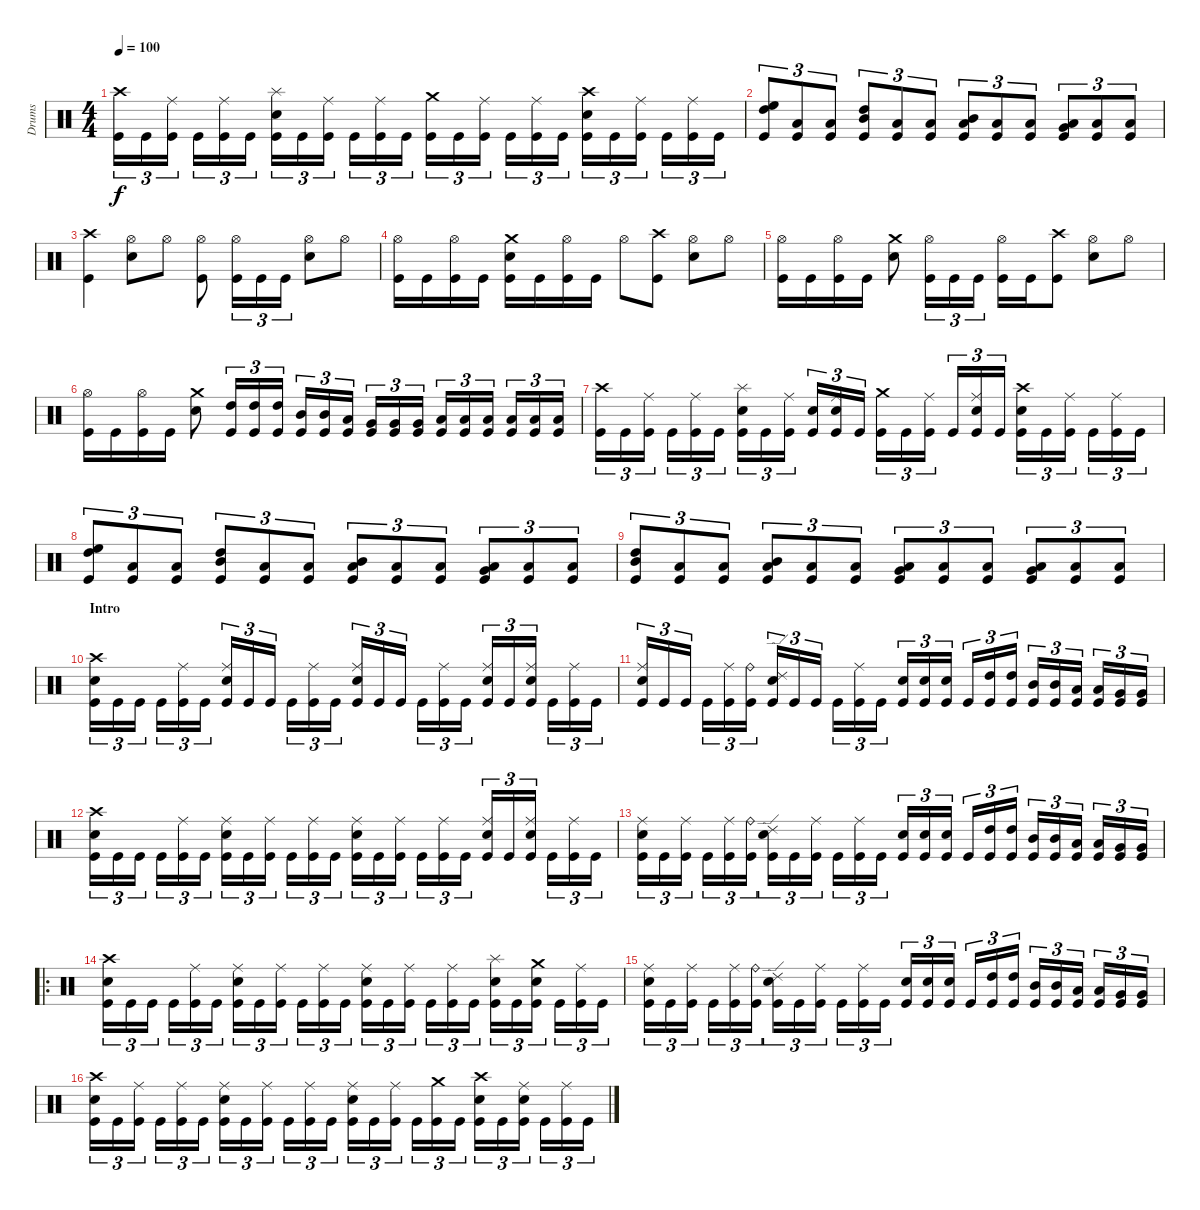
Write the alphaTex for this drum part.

\track ("Drums" "Drums") {instrument percussion}
\staff {score}
\articulation defaults
\ts (4 4)
\tempo 100
\clef neutral
\ks c
("Crash high (hit)" "Kick (hit)").16{tu (3 2) dy f} "Kick (hit)".16{tu (3 2)} ("Ride (middle)" "Kick (hit)").16{tu (3 2)} "Kick (hit)".16{tu (3 2)} ("Ride (middle)" "Kick (hit)").16{tu (3 2)} "Kick (hit)".16{tu (3 2)} ("Splash (hit)" "Electric Snare (hit)" "Kick (hit)").16{tu (3 2)} "Kick (hit)".16{tu (3 2)} ("Ride (middle)" "Kick (hit)").16{tu (3 2)} "Kick (hit)".16{tu (3 2)} ("Ride (middle)" "Kick (hit)").16{tu (3 2)} "Kick (hit)".16{tu (3 2)} ("Crash medium (hit)" "Kick (hit)").16{tu (3 2)} "Kick (hit)".16{tu (3 2)} ("Ride (middle)" "Kick (hit)").16{tu (3 2)} "Kick (hit)".16{tu (3 2)} ("Ride (middle)" "Kick (hit)").16{tu (3 2)} "Kick (hit)".16{tu (3 2)} ("Crash high (hit)" "Electric Snare (hit)" "Kick (hit)").16{tu (3 2)} "Kick (hit)".16{tu (3 2)} ("Ride (middle)" "Kick (hit)").16{tu (3 2)} "Kick (hit)".16{tu (3 2)} ("Ride (middle)" "Kick (hit)").16{tu (3 2)} "Kick (hit)".16{tu (3 2)} |
("High Floor Tom (hit)" "High Tom (hit)" "Kick (hit)").8{tu (3 2)} ("Low Floor Tom (hit)" "Kick (hit)").8{tu (3 2)} ("Low Floor Tom (hit)" "Kick (hit)").8{tu (3 2)} ("Mid Tom (hit)" "High Tom (hit)" "Kick (hit)").8{tu (3 2)} ("Low Floor Tom (hit)" "Kick (hit)").8{tu (3 2)} ("Low Floor Tom (hit)" "Kick (hit)").8{tu (3 2)} ("Mid Tom (hit)" "Low Tom (hit)" "Kick (hit)").8{tu (3 2)} ("Low Floor Tom (hit)" "Kick (hit)").8{tu (3 2)} ("Low Floor Tom (hit)" "Kick (hit)").8{tu (3 2)} ("Very Low Tom (hit)" "Low Tom (hit)" "Kick (hit)").8{tu (3 2)} ("Low Floor Tom (hit)" "Kick (hit)").8{tu (3 2)} ("Low Floor Tom (hit)" "Kick (hit)").8{tu (3 2)} |
("Crash high (hit)" "Kick (hit)").4 ("Hi-Hat (open)" "Electric Snare (hit)").8 "Hi-Hat (open)".8 ("Hi-Hat (open)" "Kick (hit)").8 ("Hi-Hat (open)" "Kick (hit)").16{tu (3 2)} "Kick (hit)".16{tu (3 2)} "Kick (hit)".16{tu (3 2)} ("Hi-Hat (open)" "Electric Snare (hit)").8 "Hi-Hat (open)".8 |
("Hi-Hat (open)" "Kick (hit)").16 "Kick (hit)".16 ("Hi-Hat (open)" "Kick (hit)").16 "Kick (hit)".16 ("Crash medium (hit)" "Electric Snare (hit)" "Kick (hit)").16 "Kick (hit)".16 ("Hi-Hat (open)" "Kick (hit)").16 "Kick (hit)".16 "Hi-Hat (open)".8 ("Crash high (hit)" "Kick (hit)").8 ("Hi-Hat (open)" "Electric Snare (hit)").8 "Hi-Hat (open)".8 |
("Hi-Hat (open)" "Kick (hit)").16 "Kick (hit)".16 ("Hi-Hat (open)" "Kick (hit)").16 "Kick (hit)".16 ("Crash medium (hit)" "Electric Snare (hit)").8 ("Hi-Hat (open)" "Kick (hit)").16{tu (3 2)} "Kick (hit)".16{tu (3 2)} "Kick (hit)".16{tu (3 2)} ("Hi-Hat (open)" "Kick (hit)").16 "Kick (hit)".16 ("Crash high (hit)" "Kick (hit)").8 ("Hi-Hat (open)" "Electric Snare (hit)").8 "Hi-Hat (open)".8 |
("Hi-Hat (open)" "Kick (hit)").16 "Kick (hit)".16 ("Hi-Hat (open)" "Kick (hit)").16 "Kick (hit)".16 ("Crash medium (hit)" "Electric Snare (hit)").8 ("High Tom (hit)" "Kick (hit)").16{tu (3 2)} ("High Tom (hit)" "Kick (hit)").16{tu (3 2)} ("High Tom (hit)" "Kick (hit)").16{tu (3 2)} ("Mid Tom (hit)" "Kick (hit)").16{tu (3 2)} ("Mid Tom (hit)" "Kick (hit)").16{tu (3 2)} ("Low Tom (hit)" "Kick (hit)").16{tu (3 2)} ("Very Low Tom (hit)" "Kick (hit)").16{tu (3 2)} ("Very Low Tom (hit)" "Kick (hit)").16{tu (3 2)} ("Very Low Tom (hit)" "Kick (hit)").16{tu (3 2)} ("Low Tom (hit)" "Kick (hit)").16{tu (3 2)} ("Low Tom (hit)" "Kick (hit)").16{tu (3 2)} ("Low Floor Tom (hit)" "Kick (hit)").16{tu (3 2)} ("Low Floor Tom (hit)" "Kick (hit)").16{tu (3 2)} ("Low Floor Tom (hit)" "Kick (hit)").16{tu (3 2)} ("Low Floor Tom (hit)" "Kick (hit)").16{tu (3 2)} |
("Crash high (hit)" "Kick (hit)").16{tu (3 2)} "Kick (hit)".16{tu (3 2)} ("Ride (middle)" "Kick (hit)").16{tu (3 2)} "Kick (hit)".16{tu (3 2)} ("Ride (middle)" "Kick (hit)").16{tu (3 2)} "Kick (hit)".16{tu (3 2)} ("Splash (hit)" "Electric Snare (hit)" "Kick (hit)").16{tu (3 2)} "Kick (hit)".16{tu (3 2)} ("Ride (middle)" "Kick (hit)").16{tu (3 2)} ("Electric Snare (hit)" "Kick (hit)").16{tu (3 2)} ("Ride (middle)" "Electric Snare (hit)" "Kick (hit)").16{tu (3 2)} "Kick (hit)".16{tu (3 2)} ("Crash medium (hit)" "Kick (hit)").16{tu (3 2)} "Kick (hit)".16{tu (3 2)} ("Ride (middle)" "Kick (hit)").16{tu (3 2)} "Kick (hit)".16{tu (3 2)} ("Ride (middle)" "Electric Snare (hit)" "Kick (hit)").16{tu (3 2)} "Kick (hit)".16{tu (3 2)} ("Crash high (hit)" "Electric Snare (hit)" "Kick (hit)").16{tu (3 2)} "Kick (hit)".16{tu (3 2)} ("Ride (middle)" "Kick (hit)").16{tu (3 2)} "Kick (hit)".16{tu (3 2)} ("Ride (middle)" "Kick (hit)").16{tu (3 2)} "Kick (hit)".16{tu (3 2)} |
("High Floor Tom (hit)" "High Tom (hit)" "Kick (hit)").8{tu (3 2)} ("Low Floor Tom (hit)" "Kick (hit)").8{tu (3 2)} ("Low Floor Tom (hit)" "Kick (hit)").8{tu (3 2)} ("Mid Tom (hit)" "High Tom (hit)" "Kick (hit)").8{tu (3 2)} ("Low Floor Tom (hit)" "Kick (hit)").8{tu (3 2)} ("Low Floor Tom (hit)" "Kick (hit)").8{tu (3 2)} ("Mid Tom (hit)" "Low Tom (hit)" "Kick (hit)").8{tu (3 2)} ("Low Floor Tom (hit)" "Kick (hit)").8{tu (3 2)} ("Low Floor Tom (hit)" "Kick (hit)").8{tu (3 2)} ("Very Low Tom (hit)" "Low Tom (hit)" "Kick (hit)").8{tu (3 2)} ("Low Floor Tom (hit)" "Kick (hit)").8{tu (3 2)} ("Low Floor Tom (hit)" "Kick (hit)").8{tu (3 2)} |
("Mid Tom (hit)" "High Tom (hit)" "Kick (hit)").8{tu (3 2)} ("Low Floor Tom (hit)" "Kick (hit)").8{tu (3 2)} ("Low Floor Tom (hit)" "Kick (hit)").8{tu (3 2)} ("Mid Tom (hit)" "Low Tom (hit)" "Kick (hit)").8{tu (3 2)} ("Low Floor Tom (hit)" "Kick (hit)").8{tu (3 2)} ("Low Floor Tom (hit)" "Kick (hit)").8{tu (3 2)} ("Very Low Tom (hit)" "Low Tom (hit)" "Kick (hit)").8{tu (3 2)} ("Low Floor Tom (hit)" "Kick (hit)").8{tu (3 2)} ("Low Floor Tom (hit)" "Kick (hit)").8{tu (3 2)} ("Very Low Tom (hit)" "Low Floor Tom (hit)" "Kick (hit)").8{tu (3 2)} ("Low Floor Tom (hit)" "Kick (hit)").8{tu (3 2)} ("Low Floor Tom (hit)" "Kick (hit)").8{tu (3 2)} |
\section ("" "Intro")
("Crash high (hit)" "Electric Snare (hit)" "Kick (hit)").16{tu (3 2)} "Kick (hit)".16{tu (3 2)} "Kick (hit)".16{tu (3 2)} "Kick (hit)".16{tu (3 2)} ("Ride (middle)" "Kick (hit)").16{tu (3 2)} "Kick (hit)".16{tu (3 2)} ("Ride (middle)" "Electric Snare (hit)" "Kick (hit)").16{tu (3 2)} "Kick (hit)".16{tu (3 2)} "Kick (hit)".16{tu (3 2)} "Kick (hit)".16{tu (3 2)} ("Ride (middle)" "Kick (hit)").16{tu (3 2)} "Kick (hit)".16{tu (3 2)} ("Ride (middle)" "Electric Snare (hit)" "Kick (hit)").16{tu (3 2)} "Kick (hit)".16{tu (3 2)} "Kick (hit)".16{tu (3 2)} "Kick (hit)".16{tu (3 2)} ("Ride (middle)" "Kick (hit)").16{tu (3 2)} "Kick (hit)".16{tu (3 2)} ("Ride (middle)" "Electric Snare (hit)" "Kick (hit)").16{tu (3 2)} "Kick (hit)".16{tu (3 2)} ("Ride (middle)" "Electric Snare (hit)" "Kick (hit)").16{tu (3 2)} "Kick (hit)".16{tu (3 2)} ("Ride (middle)" "Kick (hit)").16{tu (3 2)} "Kick (hit)".16{tu (3 2)} |
("Ride (middle)" "Electric Snare (hit)" "Kick (hit)").16{tu (3 2)} "Kick (hit)".16{tu (3 2)} "Kick (hit)".16{tu (3 2)} "Kick (hit)".16{tu (3 2)} ("Ride (middle)" "Kick (hit)").16{tu (3 2)} ("Ride (bell)" "Kick (hit)").16{tu (3 2)} ("Ride (edge) 2" "Electric Snare (hit)" "Kick (hit)").16{tu (3 2)} "Kick (hit)".16{tu (3 2)} "Kick (hit)".16{tu (3 2)} "Kick (hit)".16{tu (3 2)} ("Ride (middle)" "Kick (hit)").16{tu (3 2)} "Kick (hit)".16{tu (3 2)} ("Electric Snare (hit)" "Kick (hit)").16{tu (3 2)} ("Electric Snare (hit)" "Kick (hit)").16{tu (3 2)} ("Electric Snare (hit)" "Kick (hit)").16{tu (3 2)} "Kick (hit)".16{tu (3 2)} ("High Tom (hit)" "Kick (hit)").16{tu (3 2)} ("High Tom (hit)" "Kick (hit)").16{tu (3 2)} ("Mid Tom (hit)" "Kick (hit)").16{tu (3 2)} ("Mid Tom (hit)" "Kick (hit)").16{tu (3 2)} ("Low Tom (hit)" "Kick (hit)").16{tu (3 2)} ("Low Tom (hit)" "Kick (hit)").16{tu (3 2)} ("Very Low Tom (hit)" "Kick (hit)").16{tu (3 2)} ("Very Low Tom (hit)" "Kick (hit)").16{tu (3 2)} |
("Crash high (hit)" "Electric Snare (hit)" "Kick (hit)").16{tu (3 2)} "Kick (hit)".16{tu (3 2)} "Kick (hit)".16{tu (3 2)} "Kick (hit)".16{tu (3 2)} ("Ride (middle)" "Kick (hit)").16{tu (3 2)} "Kick (hit)".16{tu (3 2)} ("Ride (middle)" "Electric Snare (hit)" "Kick (hit)").16{tu (3 2)} "Kick (hit)".16{tu (3 2)} ("Ride (middle)" "Kick (hit)").16{tu (3 2)} "Kick (hit)".16{tu (3 2)} ("Ride (middle)" "Kick (hit)").16{tu (3 2)} "Kick (hit)".16{tu (3 2)} ("Ride (middle)" "Electric Snare (hit)" "Kick (hit)").16{tu (3 2)} "Kick (hit)".16{tu (3 2)} ("Ride (middle)" "Kick (hit)").16{tu (3 2)} "Kick (hit)".16{tu (3 2)} ("Ride (middle)" "Kick (hit)").16{tu (3 2)} "Kick (hit)".16{tu (3 2)} ("Ride (middle)" "Electric Snare (hit)" "Kick (hit)").16{tu (3 2)} "Kick (hit)".16{tu (3 2)} ("Ride (middle)" "Electric Snare (hit)" "Kick (hit)").16{tu (3 2)} "Kick (hit)".16{tu (3 2)} ("Ride (middle)" "Kick (hit)").16{tu (3 2)} "Kick (hit)".16{tu (3 2)} |
("Ride (middle)" "Electric Snare (hit)" "Kick (hit)").16{tu (3 2)} "Kick (hit)".16{tu (3 2)} ("Ride (middle)" "Kick (hit)").16{tu (3 2)} "Kick (hit)".16{tu (3 2)} ("Ride (middle)" "Kick (hit)").16{tu (3 2)} ("Ride (bell)" "Kick (hit)").16{tu (3 2)} ("Ride (edge) 2" "Electric Snare (hit)" "Kick (hit)").16{tu (3 2)} "Kick (hit)".16{tu (3 2)} ("Ride (middle)" "Kick (hit)").16{tu (3 2)} "Kick (hit)".16{tu (3 2)} ("Ride (middle)" "Kick (hit)").16{tu (3 2)} "Kick (hit)".16{tu (3 2)} ("Electric Snare (hit)" "Kick (hit)").16{tu (3 2)} ("Electric Snare (hit)" "Kick (hit)").16{tu (3 2)} ("Electric Snare (hit)" "Kick (hit)").16{tu (3 2)} "Kick (hit)".16{tu (3 2)} ("High Tom (hit)" "Kick (hit)").16{tu (3 2)} ("High Tom (hit)" "Kick (hit)").16{tu (3 2)} ("Mid Tom (hit)" "Kick (hit)").16{tu (3 2)} ("Mid Tom (hit)" "Kick (hit)").16{tu (3 2)} ("Low Tom (hit)" "Kick (hit)").16{tu (3 2)} ("Low Tom (hit)" "Kick (hit)").16{tu (3 2)} ("Very Low Tom (hit)" "Kick (hit)").16{tu (3 2)} ("Very Low Tom (hit)" "Kick (hit)").16{tu (3 2)} |
\ro
("Crash high (hit)" "Electric Snare (hit)" "Kick (hit)").16{tu (3 2)} "Kick (hit)".16{tu (3 2)} "Kick (hit)".16{tu (3 2)} "Kick (hit)".16{tu (3 2)} ("Ride (middle)" "Kick (hit)").16{tu (3 2)} "Kick (hit)".16{tu (3 2)} ("Ride (middle)" "Electric Snare (hit)" "Kick (hit)").16{tu (3 2)} "Kick (hit)".16{tu (3 2)} ("Ride (middle)" "Kick (hit)").16{tu (3 2)} "Kick (hit)".16{tu (3 2)} ("Ride (middle)" "Kick (hit)").16{tu (3 2)} "Kick (hit)".16{tu (3 2)} ("Ride (middle)" "Electric Snare (hit)" "Kick (hit)").16{tu (3 2)} "Kick (hit)".16{tu (3 2)} ("Ride (middle)" "Kick (hit)").16{tu (3 2)} "Kick (hit)".16{tu (3 2)} ("Ride (middle)" "Kick (hit)").16{tu (3 2)} "Kick (hit)".16{tu (3 2)} ("Splash (hit)" "Electric Snare (hit)" "Kick (hit)").16{tu (3 2)} "Kick (hit)".16{tu (3 2)} ("Crash medium (hit)" "Electric Snare (hit)" "Kick (hit)").16{tu (3 2)} "Kick (hit)".16{tu (3 2)} ("Ride (middle)" "Kick (hit)").16{tu (3 2)} "Kick (hit)".16{tu (3 2)} |
("Ride (middle)" "Electric Snare (hit)" "Kick (hit)").16{tu (3 2)} "Kick (hit)".16{tu (3 2)} ("Ride (middle)" "Kick (hit)").16{tu (3 2)} "Kick (hit)".16{tu (3 2)} ("Ride (middle)" "Kick (hit)").16{tu (3 2)} ("Ride (bell)" "Kick (hit)").16{tu (3 2)} ("Ride (edge) 2" "Electric Snare (hit)" "Kick (hit)").16{tu (3 2)} "Kick (hit)".16{tu (3 2)} ("Ride (middle)" "Kick (hit)").16{tu (3 2)} "Kick (hit)".16{tu (3 2)} ("Ride (middle)" "Kick (hit)").16{tu (3 2)} "Kick (hit)".16{tu (3 2)} ("Electric Snare (hit)" "Kick (hit)").16{tu (3 2)} ("Electric Snare (hit)" "Kick (hit)").16{tu (3 2)} ("Electric Snare (hit)" "Kick (hit)").16{tu (3 2)} "Kick (hit)".16{tu (3 2)} ("High Tom (hit)" "Kick (hit)").16{tu (3 2)} ("High Tom (hit)" "Kick (hit)").16{tu (3 2)} ("Mid Tom (hit)" "Kick (hit)").16{tu (3 2)} ("Mid Tom (hit)" "Kick (hit)").16{tu (3 2)} ("Low Tom (hit)" "Kick (hit)").16{tu (3 2)} ("Low Tom (hit)" "Kick (hit)").16{tu (3 2)} ("Very Low Tom (hit)" "Kick (hit)").16{tu (3 2)} ("Very Low Tom (hit)" "Kick (hit)").16{tu (3 2)} |
("Crash high (hit)" "Electric Snare (hit)" "Kick (hit)").16{tu (3 2)} "Kick (hit)".16{tu (3 2)} ("Ride (middle)" "Kick (hit)").16{tu (3 2)} "Kick (hit)".16{tu (3 2)} ("Ride (middle)" "Kick (hit)").16{tu (3 2)} "Kick (hit)".16{tu (3 2)} ("Ride (middle)" "Electric Snare (hit)" "Kick (hit)").16{tu (3 2)} "Kick (hit)".16{tu (3 2)} ("Ride (middle)" "Kick (hit)").16{tu (3 2)} "Kick (hit)".16{tu (3 2)} ("Ride (middle)" "Kick (hit)").16{tu (3 2)} "Kick (hit)".16{tu (3 2)} ("Ride (middle)" "Electric Snare (hit)" "Kick (hit)").16{tu (3 2)} "Kick (hit)".16{tu (3 2)} ("Ride (middle)" "Kick (hit)").16{tu (3 2)} "Kick (hit)".16{tu (3 2)} ("Crash medium (hit)" "Kick (hit)").16{tu (3 2)} "Kick (hit)".16{tu (3 2)} ("Crash high (hit)" "Electric Snare (hit)" "Kick (hit)").16{tu (3 2)} "Kick (hit)".16{tu (3 2)} ("Ride (middle)" "Electric Snare (hit)" "Kick (hit)").16{tu (3 2)} "Kick (hit)".16{tu (3 2)} ("Ride (middle)" "Kick (hit)").16{tu (3 2)} "Kick (hit)".16{tu (3 2)}
